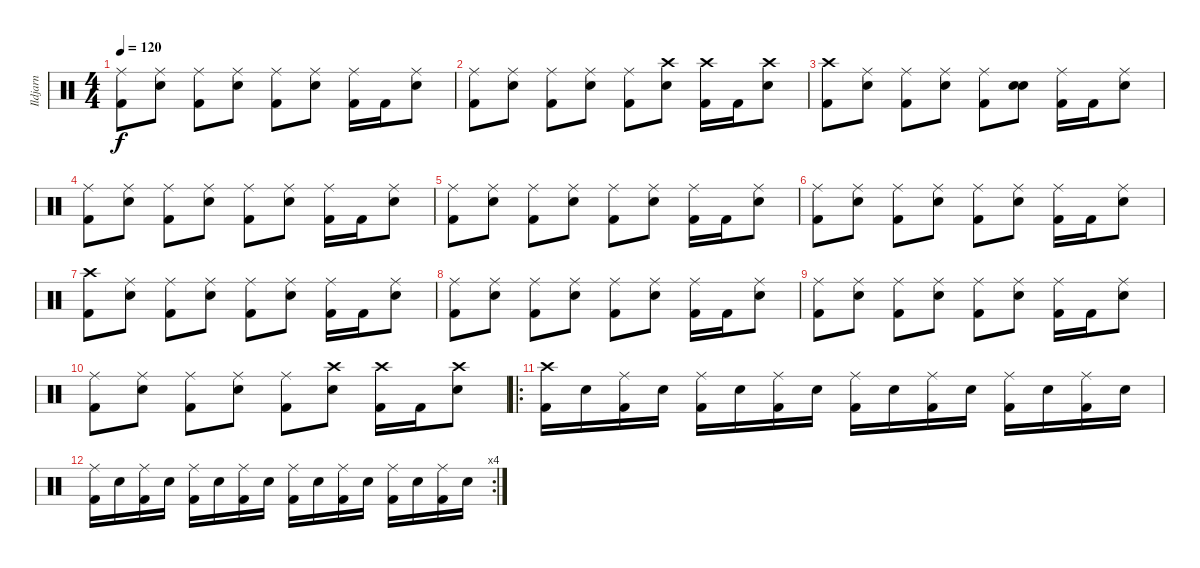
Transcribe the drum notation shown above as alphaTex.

\track ("Ildjarn" "Ildjarn") {instrument percussion}
\staff {score}
\articulation defaults
\ts (4 4)
\tempo 120
\clef neutral
\ks c
("Ride (middle)" "Kick (hit) 2").8{dy f} ("Ride (middle)" "Snare (hit) 2").8 ("Ride (middle)" "Kick (hit) 2").8 ("Ride (middle)" "Snare (hit) 2").8 ("Ride (middle)" "Kick (hit) 2").8 ("Ride (middle)" "Snare (hit) 2").8 ("Ride (middle)" "Kick (hit) 2").16 "Kick (hit) 2".16 ("Ride (middle)" "Snare (hit) 2").8 |
("Ride (middle)" "Kick (hit) 2").8 ("Ride (middle)" "Snare (hit) 2").8 ("Ride (middle)" "Kick (hit) 2").8 ("Ride (middle)" "Snare (hit) 2").8 ("Ride (middle)" "Kick (hit) 2").8 ("Crash high (hit)" "Snare (hit) 2").8 ("Crash high (hit)" "Kick (hit) 2").16 "Kick (hit) 2".16 ("Crash high (hit)" "Snare (hit) 2").8 |
("Crash high (hit)" "Kick (hit) 2").8 ("Ride (middle)" "Snare (hit) 2").8 ("Ride (middle)" "Kick (hit) 2").8 ("Ride (middle)" "Snare (hit) 2").8 ("Ride (middle)" "Kick (hit) 2").8 ("Snare (hit)" "Snare (hit) 2").8 ("Ride (middle)" "Kick (hit) 2").16 "Kick (hit) 2".16 ("Ride (middle)" "Snare (hit) 2").8 |
("Ride (middle)" "Kick (hit) 2").8 ("Ride (middle)" "Snare (hit) 2").8 ("Ride (middle)" "Kick (hit) 2").8 ("Ride (middle)" "Snare (hit) 2").8 ("Ride (middle)" "Kick (hit) 2").8 ("Ride (middle)" "Snare (hit) 2").8 ("Ride (middle)" "Kick (hit) 2").16 "Kick (hit) 2".16 ("Ride (middle)" "Snare (hit) 2").8 |
("Ride (middle)" "Kick (hit) 2").8 ("Ride (middle)" "Snare (hit) 2").8 ("Ride (middle)" "Kick (hit) 2").8 ("Ride (middle)" "Snare (hit) 2").8 ("Ride (middle)" "Kick (hit) 2").8 ("Ride (middle)" "Snare (hit) 2").8 ("Ride (middle)" "Kick (hit) 2").16 "Kick (hit) 2".16 ("Ride (middle)" "Snare (hit) 2").8 |
("Ride (middle)" "Kick (hit) 2").8 ("Ride (middle)" "Snare (hit) 2").8 ("Ride (middle)" "Kick (hit) 2").8 ("Ride (middle)" "Snare (hit) 2").8 ("Ride (middle)" "Kick (hit) 2").8 ("Ride (middle)" "Snare (hit) 2").8 ("Ride (middle)" "Kick (hit) 2").16 "Kick (hit) 2".16 ("Ride (middle)" "Snare (hit) 2").8 |
("Crash high (hit)" "Kick (hit) 2").8 ("Ride (middle)" "Snare (hit) 2").8 ("Ride (middle)" "Kick (hit) 2").8 ("Ride (middle)" "Snare (hit) 2").8 ("Ride (middle)" "Kick (hit) 2").8 ("Ride (middle)" "Snare (hit) 2").8 ("Ride (middle)" "Kick (hit) 2").16 "Kick (hit) 2".16 ("Ride (middle)" "Snare (hit) 2").8 |
("Ride (middle)" "Kick (hit) 2").8 ("Ride (middle)" "Snare (hit) 2").8 ("Ride (middle)" "Kick (hit) 2").8 ("Ride (middle)" "Snare (hit) 2").8 ("Ride (middle)" "Kick (hit) 2").8 ("Ride (middle)" "Snare (hit) 2").8 ("Ride (middle)" "Kick (hit) 2").16 "Kick (hit) 2".16 ("Ride (middle)" "Snare (hit) 2").8 |
("Ride (middle)" "Kick (hit) 2").8 ("Ride (middle)" "Snare (hit) 2").8 ("Ride (middle)" "Kick (hit) 2").8 ("Ride (middle)" "Snare (hit) 2").8 ("Ride (middle)" "Kick (hit) 2").8 ("Ride (middle)" "Snare (hit) 2").8 ("Ride (middle)" "Kick (hit) 2").16 "Kick (hit) 2".16 ("Ride (middle)" "Snare (hit) 2").8 |
("Ride (middle)" "Kick (hit) 2").8 ("Ride (middle)" "Snare (hit) 2").8 ("Ride (middle)" "Kick (hit) 2").8 ("Ride (middle)" "Snare (hit) 2").8 ("Ride (middle)" "Kick (hit) 2").8 ("Crash high (hit)" "Snare (hit) 2").8 ("Crash high (hit)" "Kick (hit) 2").16 "Kick (hit) 2".16 ("Crash high (hit)" "Snare (hit) 2").8 |
\ro
("Crash high (hit)" "Kick (hit) 2").16 "Snare (hit) 2".16 ("Ride (middle)" "Kick (hit) 2").16 "Snare (hit) 2".16 ("Ride (middle)" "Kick (hit) 2").16 "Snare (hit) 2".16 ("Ride (middle)" "Kick (hit) 2").16 "Snare (hit) 2".16 ("Ride (middle)" "Kick (hit) 2").16 "Snare (hit) 2".16 ("Ride (middle)" "Kick (hit) 2").16 "Snare (hit) 2".16 ("Ride (middle)" "Kick (hit) 2").16 "Snare (hit) 2".16 ("Ride (middle)" "Kick (hit) 2").16 "Snare (hit) 2".16 |
\rc 4
("Ride (middle)" "Kick (hit) 2").16 "Snare (hit) 2".16 ("Ride (middle)" "Kick (hit) 2").16 "Snare (hit) 2".16 ("Ride (middle)" "Kick (hit) 2").16 "Snare (hit) 2".16 ("Ride (middle)" "Kick (hit) 2").16 "Snare (hit) 2".16 ("Ride (middle)" "Kick (hit) 2").16 "Snare (hit) 2".16 ("Ride (middle)" "Kick (hit) 2").16 "Snare (hit) 2".16 ("Ride (middle)" "Kick (hit) 2").16 "Snare (hit) 2".16 ("Ride (middle)" "Kick (hit) 2").16 "Snare (hit) 2".16
